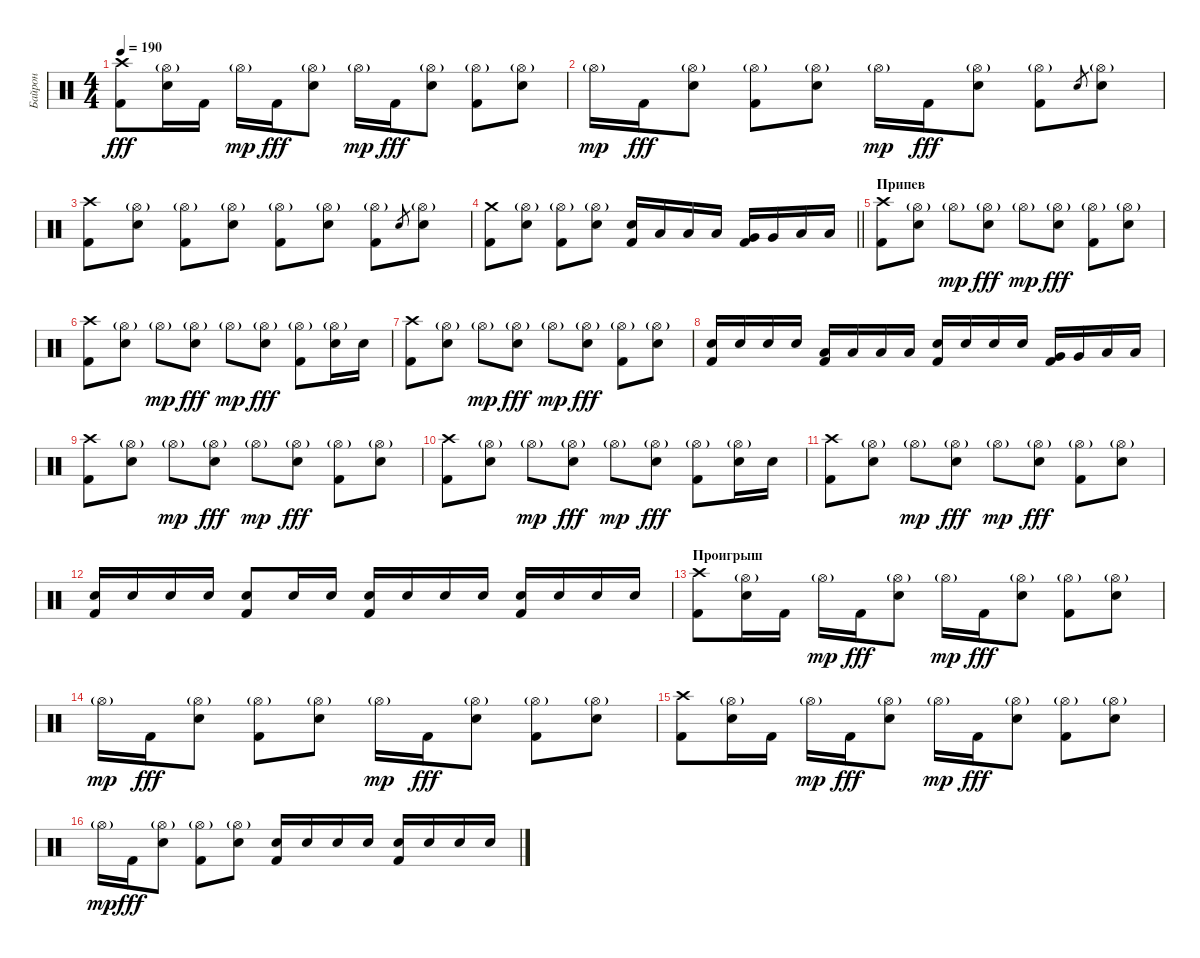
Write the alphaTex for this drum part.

\track ("Байрон" "Байрон") {instrument percussion}
\staff {score}
\articulation defaults
\ts (4 4)
\tempo 190
\clef neutral
\ks c
("Crash high (hit)" "Kick (hit) 2").8{dy fff} ("Hi-Hat (open)"{g} "Electric Snare (hit)").16 "Kick (hit) 2".16 "Hi-Hat (open)"{g}.16{dy mp} "Kick (hit) 2".16{dy fff} ("Hi-Hat (open)"{g} "Electric Snare (hit)").8 "Hi-Hat (open)"{g}.16{dy mp} "Kick (hit) 2".16{dy fff} ("Hi-Hat (open)"{g} "Electric Snare (hit)").8 ("Hi-Hat (open)"{g} "Kick (hit) 2").8 ("Hi-Hat (open)"{g} "Electric Snare (hit)").8 |
"Hi-Hat (open)"{g}.16{dy mp} "Kick (hit) 2".16{dy fff} ("Hi-Hat (open)"{g} "Electric Snare (hit)").8 ("Hi-Hat (open)"{g} "Kick (hit) 2").8 ("Hi-Hat (open)"{g} "Electric Snare (hit)").8 "Hi-Hat (open)"{g}.16{dy mp} "Kick (hit) 2".16{dy fff} ("Hi-Hat (open)"{g} "Electric Snare (hit)").8 ("Hi-Hat (open)"{g} "Kick (hit) 2").8 "Electric Snare (hit)".8{gr} ("Hi-Hat (open)"{g} "Electric Snare (hit)").8 |
("Crash high (hit)" "Kick (hit) 2").8 ("Hi-Hat (open)"{g} "Electric Snare (hit)").8 ("Hi-Hat (open)"{g} "Kick (hit) 2").8 ("Hi-Hat (open)"{g} "Electric Snare (hit)").8 ("Hi-Hat (open)"{g} "Kick (hit) 2").8 ("Hi-Hat (open)"{g} "Electric Snare (hit)").8 ("Hi-Hat (open)"{g} "Kick (hit) 2").8 "Electric Snare (hit)".8{gr} ("Hi-Hat (open)"{g} "Electric Snare (hit)").8 |
\barLineRight lightlight
("Crash medium (hit)" "Kick (hit) 2").8 ("Hi-Hat (open)"{g} "Electric Snare (hit)").8 ("Hi-Hat (open)"{g} "Kick (hit) 2").8 ("Hi-Hat (open)"{g} "Electric Snare (hit)").8 ("Electric Snare (hit)" "Kick (hit) 2").16 "Low Tom (hit)".16 "Low Tom (hit)".16 "Low Tom (hit)".16 ("Very Low Tom (hit)" "Kick (hit) 2").16 "Very Low Tom (hit)".16 "Low Floor Tom (hit)".16 "Low Floor Tom (hit)".16 |
\section ("" "Припев")
("Crash high (hit)" "Kick (hit) 2").8 ("Hi-Hat (open)"{g} "Electric Snare (hit)").8 "Hi-Hat (open)"{g}.8{dy mp} ("Hi-Hat (open)"{g} "Electric Snare (hit)").8{dy fff} "Hi-Hat (open)"{g}.8{dy mp} ("Hi-Hat (open)"{g} "Electric Snare (hit)").8{dy fff} ("Hi-Hat (open)"{g} "Kick (hit) 2").8 ("Hi-Hat (open)"{g} "Electric Snare (hit)").8 |
("Crash high (hit)" "Kick (hit) 2").8 ("Hi-Hat (open)"{g} "Electric Snare (hit)").8 "Hi-Hat (open)"{g}.8{dy mp} ("Hi-Hat (open)"{g} "Electric Snare (hit)").8{dy fff} "Hi-Hat (open)"{g}.8{dy mp} ("Hi-Hat (open)"{g} "Electric Snare (hit)").8{dy fff} ("Hi-Hat (open)"{g} "Kick (hit) 2").8 ("Hi-Hat (open)"{g} "Electric Snare (hit)").16 "Electric Snare (hit)".16 |
("Crash high (hit)" "Kick (hit) 2").8 ("Hi-Hat (open)"{g} "Electric Snare (hit)").8 "Hi-Hat (open)"{g}.8{dy mp} ("Hi-Hat (open)"{g} "Electric Snare (hit)").8{dy fff} "Hi-Hat (open)"{g}.8{dy mp} ("Hi-Hat (open)"{g} "Electric Snare (hit)").8{dy fff} ("Hi-Hat (open)"{g} "Kick (hit) 2").8 ("Hi-Hat (open)"{g} "Electric Snare (hit)").8 |
("Electric Snare (hit)" "Kick (hit) 2").16 "Electric Snare (hit)".16 "Electric Snare (hit)".16 "Electric Snare (hit)".16 ("Low Tom (hit)" "Kick (hit) 2").16 "Low Tom (hit)".16 "Low Tom (hit)".16 "Low Tom (hit)".16 ("Electric Snare (hit)" "Kick (hit) 2").16 "Electric Snare (hit)".16 "Electric Snare (hit)".16 "Electric Snare (hit)".16 ("Very Low Tom (hit)" "Kick (hit) 2").16 "Very Low Tom (hit)".16 "Low Floor Tom (hit)".16 "Low Floor Tom (hit)".16 |
("Crash high (hit)" "Kick (hit) 2").8 ("Hi-Hat (open)"{g} "Electric Snare (hit)").8 "Hi-Hat (open)"{g}.8{dy mp} ("Hi-Hat (open)"{g} "Electric Snare (hit)").8{dy fff} "Hi-Hat (open)"{g}.8{dy mp} ("Hi-Hat (open)"{g} "Electric Snare (hit)").8{dy fff} ("Hi-Hat (open)"{g} "Kick (hit) 2").8 ("Hi-Hat (open)"{g} "Electric Snare (hit)").8 |
("Crash high (hit)" "Kick (hit) 2").8 ("Hi-Hat (open)"{g} "Electric Snare (hit)").8 "Hi-Hat (open)"{g}.8{dy mp} ("Hi-Hat (open)"{g} "Electric Snare (hit)").8{dy fff} "Hi-Hat (open)"{g}.8{dy mp} ("Hi-Hat (open)"{g} "Electric Snare (hit)").8{dy fff} ("Hi-Hat (open)"{g} "Kick (hit) 2").8 ("Hi-Hat (open)"{g} "Electric Snare (hit)").16 "Electric Snare (hit)".16 |
("Crash high (hit)" "Kick (hit) 2").8 ("Hi-Hat (open)"{g} "Electric Snare (hit)").8 "Hi-Hat (open)"{g}.8{dy mp} ("Hi-Hat (open)"{g} "Electric Snare (hit)").8{dy fff} "Hi-Hat (open)"{g}.8{dy mp} ("Hi-Hat (open)"{g} "Electric Snare (hit)").8{dy fff} ("Hi-Hat (open)"{g} "Kick (hit) 2").8 ("Hi-Hat (open)"{g} "Electric Snare (hit)").8 |
("Electric Snare (hit)" "Kick (hit) 2").16 "Electric Snare (hit)".16 "Electric Snare (hit)".16 "Electric Snare (hit)".16 ("Electric Snare (hit)" "Kick (hit) 2").8 "Electric Snare (hit)".16 "Electric Snare (hit)".16 ("Electric Snare (hit)" "Kick (hit) 2").16 "Electric Snare (hit)".16 "Electric Snare (hit)".16 "Electric Snare (hit)".16 ("Electric Snare (hit)" "Kick (hit) 2").16 "Electric Snare (hit)".16 "Electric Snare (hit)".16 "Electric Snare (hit)".16 |
\section ("" "Проигрыш")
("Crash high (hit)" "Kick (hit) 2").8 ("Hi-Hat (open)"{g} "Electric Snare (hit)").16 "Kick (hit) 2".16 "Hi-Hat (open)"{g}.16{dy mp} "Kick (hit) 2".16{dy fff} ("Hi-Hat (open)"{g} "Electric Snare (hit)").8 "Hi-Hat (open)"{g}.16{dy mp} "Kick (hit) 2".16{dy fff} ("Hi-Hat (open)"{g} "Electric Snare (hit)").8 ("Hi-Hat (open)"{g} "Kick (hit) 2").8 ("Hi-Hat (open)"{g} "Electric Snare (hit)").8 |
"Hi-Hat (open)"{g}.16{dy mp} "Kick (hit) 2".16{dy fff} ("Hi-Hat (open)"{g} "Electric Snare (hit)").8 ("Hi-Hat (open)"{g} "Kick (hit) 2").8 ("Hi-Hat (open)"{g} "Electric Snare (hit)").8 "Hi-Hat (open)"{g}.16{dy mp} "Kick (hit) 2".16{dy fff} ("Hi-Hat (open)"{g} "Electric Snare (hit)").8 ("Hi-Hat (open)"{g} "Kick (hit) 2").8 ("Hi-Hat (open)"{g} "Electric Snare (hit)").8 |
("Crash high (hit)" "Kick (hit) 2").8 ("Hi-Hat (open)"{g} "Electric Snare (hit)").16 "Kick (hit) 2".16 "Hi-Hat (open)"{g}.16{dy mp} "Kick (hit) 2".16{dy fff} ("Hi-Hat (open)"{g} "Electric Snare (hit)").8 "Hi-Hat (open)"{g}.16{dy mp} "Kick (hit) 2".16{dy fff} ("Hi-Hat (open)"{g} "Electric Snare (hit)").8 ("Hi-Hat (open)"{g} "Kick (hit) 2").8 ("Hi-Hat (open)"{g} "Electric Snare (hit)").8 |
"Hi-Hat (open)"{g}.16{dy mp} "Kick (hit) 2".16{dy fff} ("Hi-Hat (open)"{g} "Electric Snare (hit)").8 ("Hi-Hat (open)"{g} "Kick (hit) 2").8 ("Hi-Hat (open)"{g} "Electric Snare (hit)").8 ("Electric Snare (hit)" "Kick (hit) 2").16 "Electric Snare (hit)".16 "Electric Snare (hit)".16 "Electric Snare (hit)".16 ("Electric Snare (hit)" "Kick (hit) 2").16 "Electric Snare (hit)".16 "Electric Snare (hit)".16 "Electric Snare (hit)".16
